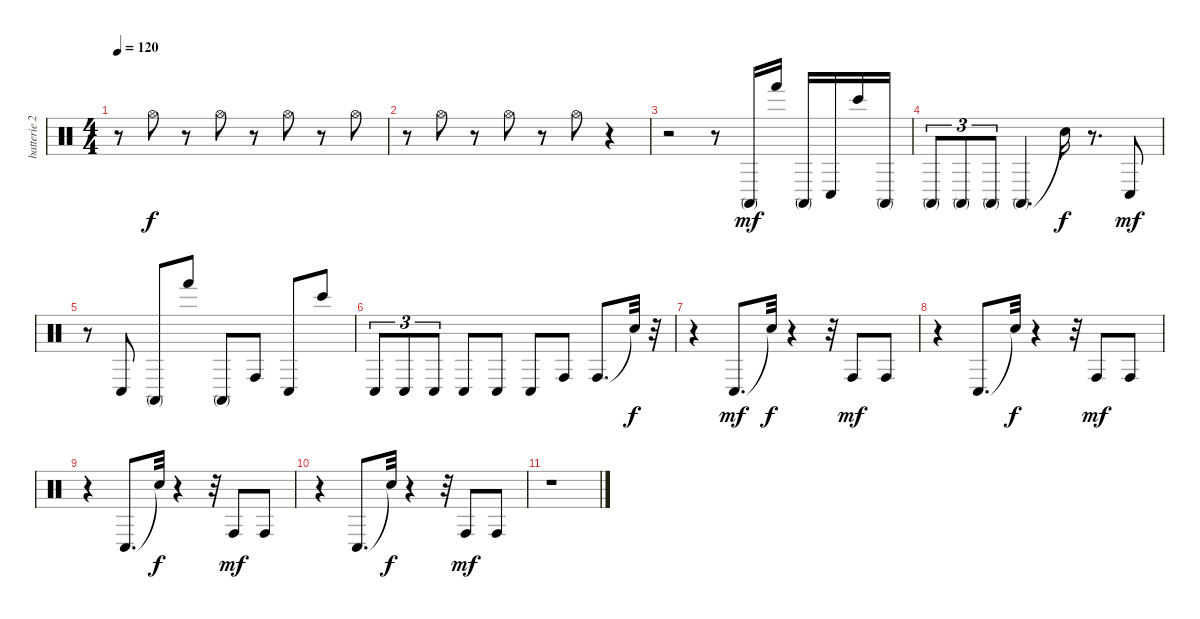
\track ("batterie 2" "batterie 2") {instrument percussion}
\staff {score}
\articulation defaults
\ts (4 4)
\tempo 120
\clef neutral
\ks c
r.8{dy f} "Hi-Hat (open)".8 r.8 "Hi-Hat (open)".8 r.8 "Hi-Hat (open)".8 r.8 "Hi-Hat (open)".8 |
r.8 "Hi-Hat (open)".8 r.8 "Hi-Hat (open)".8 r.8 "Hi-Hat (open)".8 r.4 |
r.2 r.8 "Conga high (mute)".16{dy mf} "Hand (hit)".16 "Conga high (mute)".16 "Conga low (hit)".16 "Bongo High (hit)".16 "Conga high (mute)".16 |
"Conga high (mute)".8{tu (3 2)} "Conga high (mute)".8{tu (3 2)} "Conga high (mute)".8{tu (3 2)} "Conga high (mute)".4{d} "Snare (hit)"{t}.16{dy f} r.8{d} "Conga low (hit)".8{dy mf} |
r.8 "Conga low (hit)".8 "Conga high (mute)".8 "Hand (hit)".8 "Conga high (mute)".8 "Conga high (hit)".8 "Conga low (hit)".8 "Bongo High (hit)".8 |
"Conga low (hit)".8{tu (3 2)} "Conga low (hit)".8{tu (3 2)} "Conga low (hit)".8{tu (3 2)} "Conga low (hit)".8 "Conga low (hit)".8 "Conga low (hit)".8 "Conga high (hit)".8 "Conga high (hit)".8{d} "Snare (hit)"{t}.32{dy f} r.32 |
r.4 "Conga low (hit)".8{d dy mf} "Snare (hit)"{t}.32{dy f} r.4 r.32 "Conga high (hit)".8{dy mf} "Conga high (hit)".8 |
r.4 "Conga low (hit)".8{d} "Snare (hit)"{t}.32{dy f} r.4 r.32 "Conga high (hit)".8{dy mf} "Conga high (hit)".8 |
r.4 "Conga low (hit)".8{d} "Snare (hit)"{t}.32{dy f} r.4 r.32 "Conga high (hit)".8{dy mf} "Conga high (hit)".8 |
r.4 "Conga low (hit)".8{d} "Snare (hit)"{t}.32{dy f} r.4 r.32 "Conga high (hit)".8{dy mf} "Conga high (hit)".8 |
r.1
